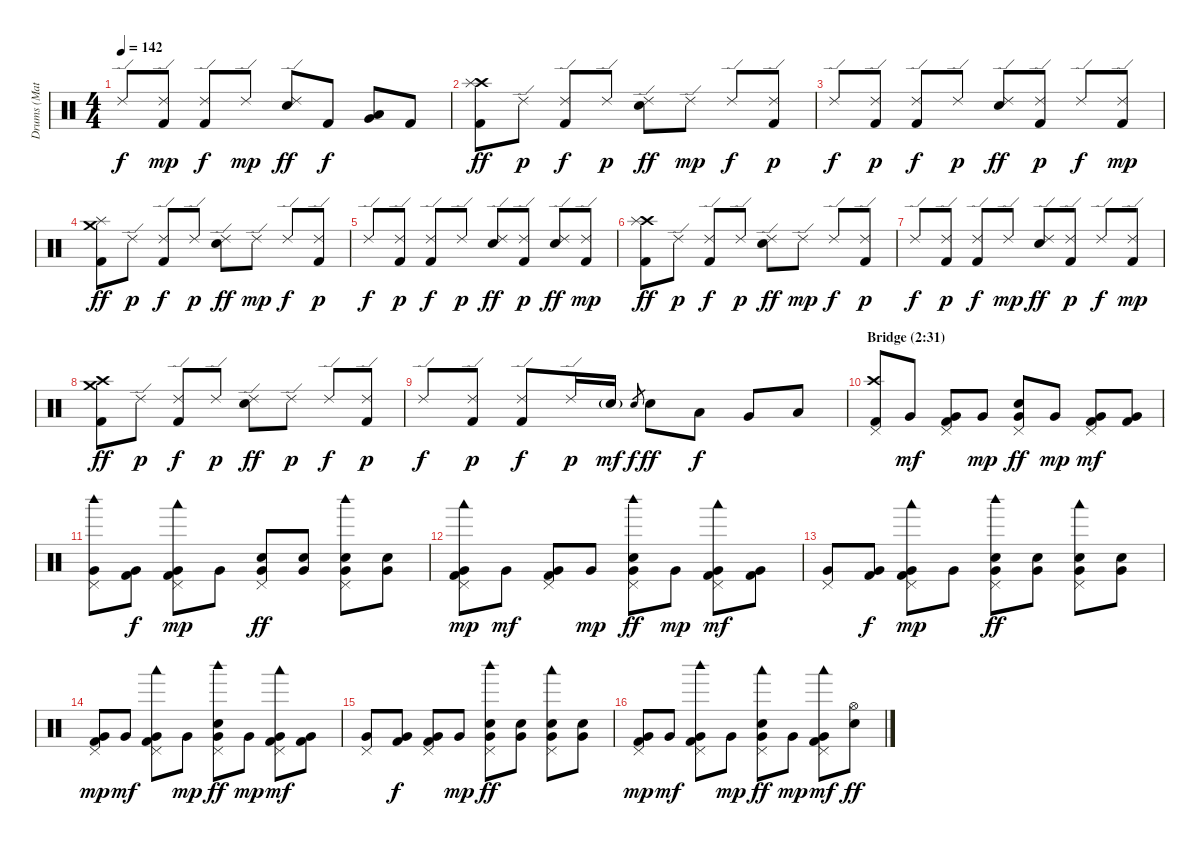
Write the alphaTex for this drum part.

\track ("Drums (Matt Sorum)" "Drums (Mat") {instrument percussion}
\staff {score}
\articulation defaults
\ts (4 4)
\tempo 142
\clef neutral
\ks c "Ride (edge) 2".8{dy f}
("Ride (edge) 2" "Kick (hit) 2").8{dy mp} ("Ride (edge) 2" "Kick (hit) 2").8{dy f} "Ride (edge) 2".8{dy mp} ("Ride (edge) 2" "Snare (hit) 2").8{dy ff} "Kick (hit) 2".8{dy f} ("Low Tom (hit)" "Very Low Tom (hit)").8 "Kick (hit) 2".8 |
("Crash high (hit)" "Splash (hit)" "Kick (hit) 2").8{dy ff} "Ride (edge) 2".8{dy p} ("Ride (edge) 2" "Kick (hit) 2").8{dy f} "Ride (edge) 2".8{dy p} ("Ride (edge) 2" "Snare (hit) 2").8{dy ff} "Ride (edge) 2".8{dy mp} "Ride (edge) 2".8{dy f} ("Ride (edge) 2" "Kick (hit) 2").8{dy p} |
"Ride (edge) 2".8{dy f} ("Ride (edge) 2" "Kick (hit) 2").8{dy p} ("Ride (edge) 2" "Kick (hit) 2").8{dy f} "Ride (edge) 2".8{dy p} ("Ride (edge) 2" "Snare (hit) 2").8{dy ff} ("Ride (edge) 2" "Kick (hit) 2").8{dy p} "Ride (edge) 2".8{dy f} ("Ride (edge) 2" "Kick (hit) 2").8{dy mp} |
("Crash medium (hit)" "Splash (hit)" "Kick (hit) 2").8{dy ff} "Ride (edge) 2".8{dy p} ("Ride (edge) 2" "Kick (hit) 2").8{dy f} "Ride (edge) 2".8{dy p} ("Ride (edge) 2" "Snare (hit) 2").8{dy ff} "Ride (edge) 2".8{dy mp} "Ride (edge) 2".8{dy f} ("Ride (edge) 2" "Kick (hit) 2").8{dy p} |
"Ride (edge) 2".8{dy f} ("Ride (edge) 2" "Kick (hit) 2").8{dy p} ("Ride (edge) 2" "Kick (hit) 2").8{dy f} "Ride (edge) 2".8{dy p} ("Ride (edge) 2" "Snare (hit) 2").8{dy ff} ("Ride (edge) 2" "Kick (hit) 2").8{dy p} ("Ride (edge) 2" "Snare (hit) 2").8{dy ff} ("Ride (edge) 2" "Kick (hit) 2").8{dy mp} |
("Crash high (hit)" "Splash (hit)" "Kick (hit) 2").8{dy ff} "Ride (edge) 2".8{dy p} ("Ride (edge) 2" "Kick (hit) 2").8{dy f} "Ride (edge) 2".8{dy p} ("Ride (edge) 2" "Snare (hit) 2").8{dy ff} "Ride (edge) 2".8{dy mp} "Ride (edge) 2".8{dy f} ("Ride (edge) 2" "Kick (hit) 2").8{dy p} |
"Ride (edge) 2".8{dy f} ("Ride (edge) 2" "Kick (hit) 2").8{dy p} ("Ride (edge) 2" "Kick (hit) 2").8{dy f} "Ride (edge) 2".8{dy mp} ("Ride (edge) 2" "Snare (hit) 2").8{dy ff} ("Ride (edge) 2" "Kick (hit) 2").8{dy p} "Ride (edge) 2".8{dy f} ("Ride (edge) 2" "Kick (hit) 2").8{dy mp} |
("Crash high (hit)" "Crash medium (hit)" "Kick (hit) 2").8{dy ff} "Ride (edge) 2".8{dy p} ("Ride (edge) 2" "Kick (hit) 2").8{dy f} "Ride (edge) 2".8{dy p} ("Ride (edge) 2" "Snare (hit) 2").8{dy ff} "Ride (edge) 2".8{dy p} "Ride (edge) 2".8{dy f} ("Ride (edge) 2" "Kick (hit) 2").8{dy p} |
"Ride (edge) 2".8{dy f} ("Ride (edge) 2" "Kick (hit) 2").8{dy p} ("Ride (edge) 2" "Kick (hit) 2").8{dy f} "Ride (edge) 2".16{dy p} "Snare (hit) 2"{g}.16{dy mf} "Snare (hit) 2".8{gr dy f} "Snare (hit) 2".8{dy ff} "Low Tom (hit)".8{dy f} "Very Low Tom (hit)".8 "Low Floor Tom (hit)".8 |
\section ("" "Bridge (2:31)")
("Crash high (hit)" "Pedal Hi-Hat (hit)" "Kick (hit) 2").8 "Very Low Tom (hit)".8{dy mf} ("Very Low Tom (hit)" "Pedal Hi-Hat (hit)" "Kick (hit) 2").8 "Very Low Tom (hit)".8{dy mp} ("Very Low Tom (hit)" "Snare (hit) 2" "Pedal Hi-Hat (hit)").8{dy ff} "Very Low Tom (hit)".8{dy mp} ("Very Low Tom (hit)" "Pedal Hi-Hat (hit)" "Kick (hit) 2").8{dy mf} ("Very Low Tom (hit)" "Kick (hit) 2").8 |
("Woodblock high (hit)" "Very Low Tom (hit)" "Pedal Hi-Hat (hit)").8 ("Very Low Tom (hit)" "Kick (hit) 2").8{dy f} ("Woodblock low (hit)" "Very Low Tom (hit)" "Pedal Hi-Hat (hit)" "Kick (hit) 2").8{dy mp} "Very Low Tom (hit)".8 ("Very Low Tom (hit)" "Snare (hit) 2" "Pedal Hi-Hat (hit)").8{dy ff} ("Very Low Tom (hit)" "Snare (hit) 2").8 ("Woodblock high (hit)" "Very Low Tom (hit)" "Snare (hit) 2" "Pedal Hi-Hat (hit)").8 ("Very Low Tom (hit)" "Snare (hit) 2").8 |
("Woodblock low (hit)" "Very Low Tom (hit)" "Pedal Hi-Hat (hit)" "Kick (hit) 2").8{dy mp} "Very Low Tom (hit)".8{dy mf} ("Very Low Tom (hit)" "Pedal Hi-Hat (hit)" "Kick (hit) 2").8 "Very Low Tom (hit)".8{dy mp} ("Woodblock high (hit)" "Very Low Tom (hit)" "Snare (hit) 2" "Pedal Hi-Hat (hit)").8{dy ff} "Very Low Tom (hit)".8{dy mp} ("Woodblock low (hit)" "Very Low Tom (hit)" "Pedal Hi-Hat (hit)" "Kick (hit) 2").8{dy mf} ("Very Low Tom (hit)" "Kick (hit) 2").8 |
("Very Low Tom (hit)" "Pedal Hi-Hat (hit)").8 ("Very Low Tom (hit)" "Kick (hit) 2").8{dy f} ("Woodblock low (hit)" "Very Low Tom (hit)" "Pedal Hi-Hat (hit)" "Kick (hit) 2").8{dy mp} "Very Low Tom (hit)".8 ("Woodblock high (hit)" "Very Low Tom (hit)" "Snare (hit) 2" "Pedal Hi-Hat (hit)").8{dy ff} ("Very Low Tom (hit)" "Snare (hit) 2").8 ("Woodblock low (hit)" "Very Low Tom (hit)" "Snare (hit) 2" "Pedal Hi-Hat (hit)").8 ("Very Low Tom (hit)" "Snare (hit) 2").8 |
("Very Low Tom (hit)" "Pedal Hi-Hat (hit)" "Kick (hit) 2").8{dy mp} "Very Low Tom (hit)".8{dy mf} ("Woodblock low (hit)" "Very Low Tom (hit)" "Pedal Hi-Hat (hit)" "Kick (hit) 2").8 "Very Low Tom (hit)".8{dy mp} ("Woodblock high (hit)" "Very Low Tom (hit)" "Snare (hit) 2" "Pedal Hi-Hat (hit)").8{dy ff} "Very Low Tom (hit)".8{dy mp} ("Woodblock low (hit)" "Very Low Tom (hit)" "Pedal Hi-Hat (hit)" "Kick (hit) 2").8{dy mf} ("Very Low Tom (hit)" "Kick (hit) 2").8 |
("Very Low Tom (hit)" "Pedal Hi-Hat (hit)").8 ("Very Low Tom (hit)" "Kick (hit) 2").8{dy f} ("Very Low Tom (hit)" "Pedal Hi-Hat (hit)" "Kick (hit) 2").8 "Very Low Tom (hit)".8{dy mp} ("Woodblock high (hit)" "Very Low Tom (hit)" "Snare (hit) 2" "Pedal Hi-Hat (hit)").8{dy ff} ("Very Low Tom (hit)" "Snare (hit) 2").8 ("Woodblock low (hit)" "Very Low Tom (hit)" "Snare (hit) 2" "Pedal Hi-Hat (hit)").8 ("Very Low Tom (hit)" "Snare (hit) 2").8 |
("Very Low Tom (hit)" "Pedal Hi-Hat (hit)" "Kick (hit) 2").8{dy mp} "Very Low Tom (hit)".8{dy mf} ("Woodblock high (hit)" "Very Low Tom (hit)" "Pedal Hi-Hat (hit)" "Kick (hit) 2").8 "Very Low Tom (hit)".8{dy mp} ("Woodblock low (hit)" "Very Low Tom (hit)" "Snare (hit) 2" "Pedal Hi-Hat (hit)").8{dy ff} "Very Low Tom (hit)".8{dy mp} ("Woodblock low (hit)" "Very Low Tom (hit)" "Pedal Hi-Hat (hit)" "Kick (hit) 2").8{dy mf} ("Hi-Hat (open)" "Snare (hit) 2").8{dy ff}
